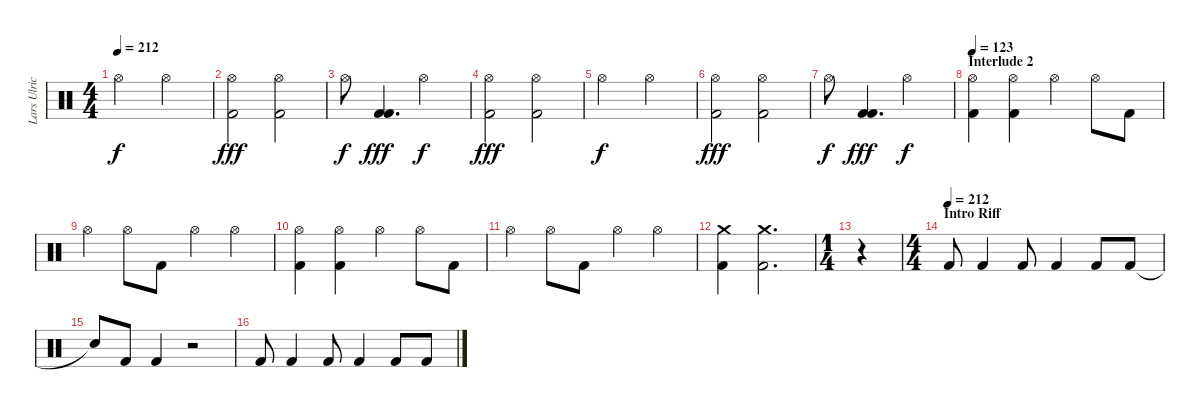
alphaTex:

\track ("Lars Ulrich" "Lars Ulric") {instrument percussion}
\staff {score}
\articulation defaults
\ts (4 4)
\tempo 212
\clef neutral
\ks c "Hi-Hat (open)".2{dy f} "Hi-Hat (open)".2
|
("Hi-Hat (open)" "Kick (hit) 2").2{dy fff} ("Hi-Hat (open)" "Kick (hit) 2").2 |
"Hi-Hat (open)".8{dy f} ("Kick (hit) 2" "Kick (hit) 2").4{d dy fff} "Hi-Hat (open)".2{dy f} |
("Hi-Hat (open)" "Kick (hit) 2").2{dy fff} ("Hi-Hat (open)" "Kick (hit) 2").2 |
"Hi-Hat (open)".2{dy f} "Hi-Hat (open)".2 |
("Hi-Hat (open)" "Kick (hit) 2").2{dy fff} ("Hi-Hat (open)" "Kick (hit) 2").2 |
"Hi-Hat (open)".8{dy f} ("Kick (hit) 2" "Kick (hit) 2").4{d dy fff} "Hi-Hat (open)".2{dy f} |
\section ("" "Interlude 2")
\tempo 123
("Hi-Hat (open)" "Kick (hit) 2").4 ("Hi-Hat (open)" "Kick (hit) 2").4 "Hi-Hat (open)".4 "Hi-Hat (open)".8 "Kick (hit) 2".8 |
"Hi-Hat (open)".4 "Hi-Hat (open)".8 "Kick (hit) 2".8 "Hi-Hat (open)".4 "Hi-Hat (open)".4 |
("Hi-Hat (open)" "Kick (hit) 2").4 ("Hi-Hat (open)" "Kick (hit) 2").4 "Hi-Hat (open)".4 "Hi-Hat (open)".8 "Kick (hit) 2".8 |
"Hi-Hat (open)".4 "Hi-Hat (open)".8 "Kick (hit) 2".8 "Hi-Hat (open)".4 "Hi-Hat (open)".4 |
("Crash medium (hit)" "Kick (hit) 2").4 ("Crash medium (hit)" "Kick (hit) 2").2{d} |
\ts (1 4)
r.4 |
\ts (4 4)
\section ("" "Intro Riff")
\tempo (212)
"Kick (hit) 2".8 "Kick (hit) 2".4 "Kick (hit) 2".8 "Kick (hit) 2".4 "Kick (hit) 2".8 "Kick (hit) 2".8 |
"Snare (hit)"{t}.8 "Kick (hit) 2".8 "Kick (hit) 2".4 r.2 |
"Kick (hit) 2".8 "Kick (hit) 2".4 "Kick (hit) 2".8 "Kick (hit) 2".4 "Kick (hit) 2".8 "Kick (hit) 2".8
